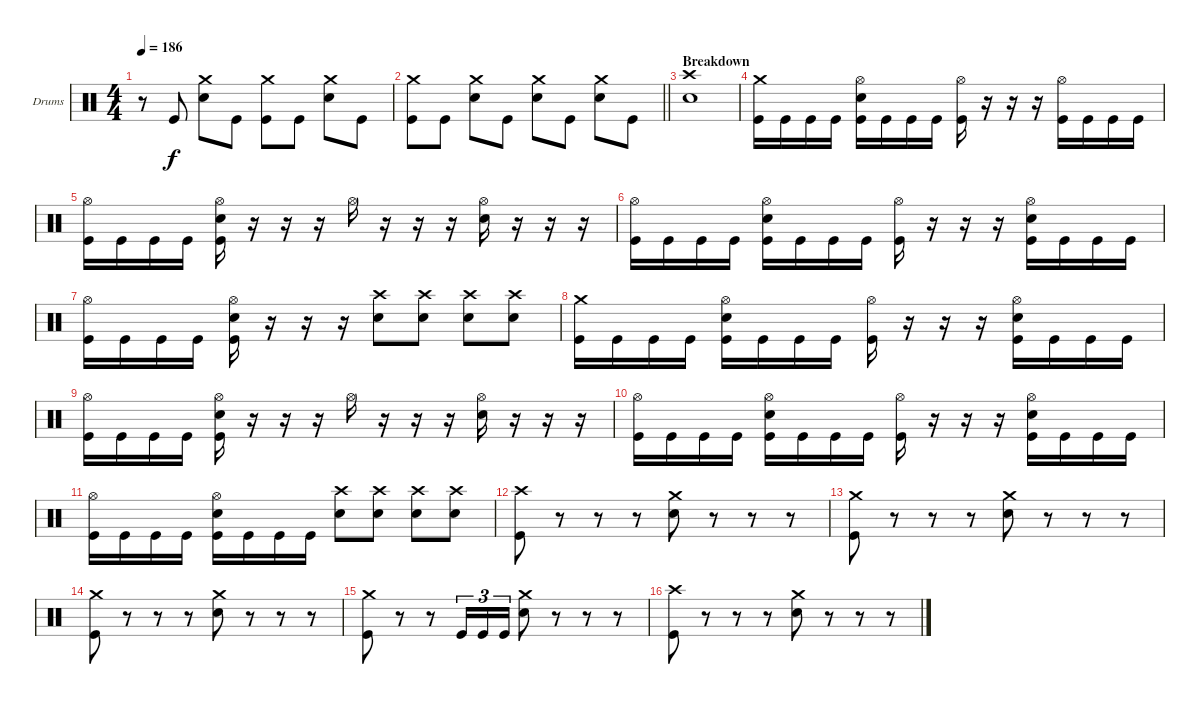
\bracketExtendMode groupsimilarinstruments
\firstSystemTrackNameOrientation horizontal
\otherSystemsTrackNameOrientation horizontal
\track ("Drumkit" "Drums") {instrument percussion}
\staff {score}
\articulation defaults
\ts (4 4)
\tempo 186
\clef neutral
\scale
0.333333
\ks c
r.8{dy f} "Kick (hit)".8 ("Crash medium (hit)" "Snare (hit) 2").8 "Kick (hit)".8 ("Crash medium (hit)" "Kick (hit)").8 "Kick (hit)".8 ("Crash medium (hit)" "Snare (hit) 2").8 "Kick (hit)".8 |
\scale
0.333333
\barLineRight lightlight
("Crash medium (hit)" "Kick (hit)").8 "Kick (hit)".8 ("Crash medium (hit)" "Snare (hit) 2").8 "Kick (hit)".8 ("Crash medium (hit)" "Snare (hit) 2").8 "Kick (hit)".8 ("Crash medium (hit)" "Snare (hit) 2").8 "Kick (hit)".8 |
\section ("" "Breakdown")
\scale
0.333333 ("Crash high (hit)" "Snare (hit) 2").1 |
\scale
0.333333 ("Crash medium (hit)" "Kick (hit)").16 "Kick (hit)".16 "Kick (hit)".16 "Kick (hit)".16 ("Hi-Hat (open)" "Snare (hit) 2" "Kick (hit)").16 "Kick (hit)".16 "Kick (hit)".16 "Kick (hit)".16 ("Hi-Hat (open)" "Kick (hit)").16 r.16 r.16 r.16 ("Hi-Hat (open)" "Kick (hit)").16 "Kick (hit)".16 "Kick (hit)".16 "Kick (hit)".16 |
\scale
0.333333 ("Hi-Hat (open)" "Kick (hit)").16 "Kick (hit)".16 "Kick (hit)".16 "Kick (hit)".16 ("Hi-Hat (open)" "Snare (hit) 2" "Kick (hit)").16 r.16 r.16 r.16 "Hi-Hat (open)".16 r.16 r.16 r.16 ("Hi-Hat (open)" "Snare (hit) 2").16 r.16 r.16 r.16 |
\scale
0.333333 ("Hi-Hat (open)" "Kick (hit)").16 "Kick (hit)".16 "Kick (hit)".16 "Kick (hit)".16 ("Hi-Hat (open)" "Snare (hit) 2" "Kick (hit)").16 "Kick (hit)".16 "Kick (hit)".16 "Kick (hit)".16 ("Hi-Hat (open)" "Kick (hit)").16 r.16 r.16 r.16 ("Hi-Hat (open)" "Snare (hit) 2" "Kick (hit)").16 "Kick (hit)".16 "Kick (hit)".16 "Kick (hit)".16 |
\scale
0.333333 ("Hi-Hat (open)" "Kick (hit)").16 "Kick (hit)".16 "Kick (hit)".16 "Kick (hit)".16 ("Hi-Hat (open)" "Snare (hit) 2" "Kick (hit)").16 r.16 r.16 r.16 ("Crash high (hit)" "Snare (hit) 2").8 ("Crash high (hit)" "Snare (hit) 2").8 ("Crash high (hit)" "Snare (hit) 2").8 ("Crash high (hit)" "Snare (hit) 2").8 |
\scale
0.333333 ("Crash medium (hit)" "Kick (hit)").16 "Kick (hit)".16 "Kick (hit)".16 "Kick (hit)".16 ("Hi-Hat (open)" "Snare (hit) 2" "Kick (hit)").16 "Kick (hit)".16 "Kick (hit)".16 "Kick (hit)".16 ("Hi-Hat (open)" "Kick (hit)").16 r.16 r.16 r.16 ("Hi-Hat (open)" "Snare (hit) 2" "Kick (hit)").16 "Kick (hit)".16 "Kick (hit)".16 "Kick (hit)".16 |
\scale
0.333333 ("Hi-Hat (open)" "Kick (hit)").16 "Kick (hit)".16 "Kick (hit)".16 "Kick (hit)".16 ("Hi-Hat (open)" "Snare (hit) 2" "Kick (hit)").16 r.16 r.16 r.16 "Hi-Hat (open)".16 r.16 r.16 r.16 ("Hi-Hat (open)" "Snare (hit) 2").16 r.16 r.16 r.16 |
\scale
0.333333 ("Hi-Hat (open)" "Kick (hit)").16 "Kick (hit)".16 "Kick (hit)".16 "Kick (hit)".16 ("Hi-Hat (open)" "Snare (hit) 2" "Kick (hit)").16 "Kick (hit)".16 "Kick (hit)".16 "Kick (hit)".16 ("Hi-Hat (open)" "Kick (hit)").16 r.16 r.16 r.16 ("Hi-Hat (open)" "Snare (hit) 2" "Kick (hit)").16 "Kick (hit)".16 "Kick (hit)".16 "Kick (hit)".16 |
\scale
0.333333 ("Hi-Hat (open)" "Kick (hit)").16 "Kick (hit)".16 "Kick (hit)".16 "Kick (hit)".16 ("Hi-Hat (open)" "Snare (hit) 2" "Kick (hit)").16 "Kick (hit)".16 "Kick (hit)".16 "Kick (hit)".16 ("Crash high (hit)" "Snare (hit) 2").8 ("Crash high (hit)" "Snare (hit) 2").8 ("Crash high (hit)" "Snare (hit) 2").8 ("Crash high (hit)" "Snare (hit) 2").8 |
\scale
0.333333 ("Crash high (hit)" "Kick (hit)").8 r.8 r.8 r.8 ("Crash medium (hit)" "Snare (hit) 2").8 r.8 r.8 r.8 |
\scale
0.333333 ("Crash medium (hit)" "Kick (hit)").8 r.8 r.8 r.8 ("Crash medium (hit)" "Snare (hit) 2").8 r.8 r.8 r.8 |
\scale
0.333333 ("Crash medium (hit)" "Kick (hit)").8 r.8 r.8 r.8 ("Crash medium (hit)" "Snare (hit) 2").8 r.8 r.8 r.8 |
\scale
0.333333 ("Crash medium (hit)" "Kick (hit)").8 r.8 r.8 "Kick (hit)".16{tu (3 2)} "Kick (hit)".16{tu (3 2)} "Kick (hit)".16{tu (3 2)} ("Crash medium (hit)" "Snare (hit) 2").8 r.8 r.8 r.8 |
\scale
0.333333 ("Crash high (hit)" "Kick (hit)").8 r.8 r.8 r.8 ("Crash medium (hit)" "Snare (hit) 2").8 r.8 r.8 r.8
